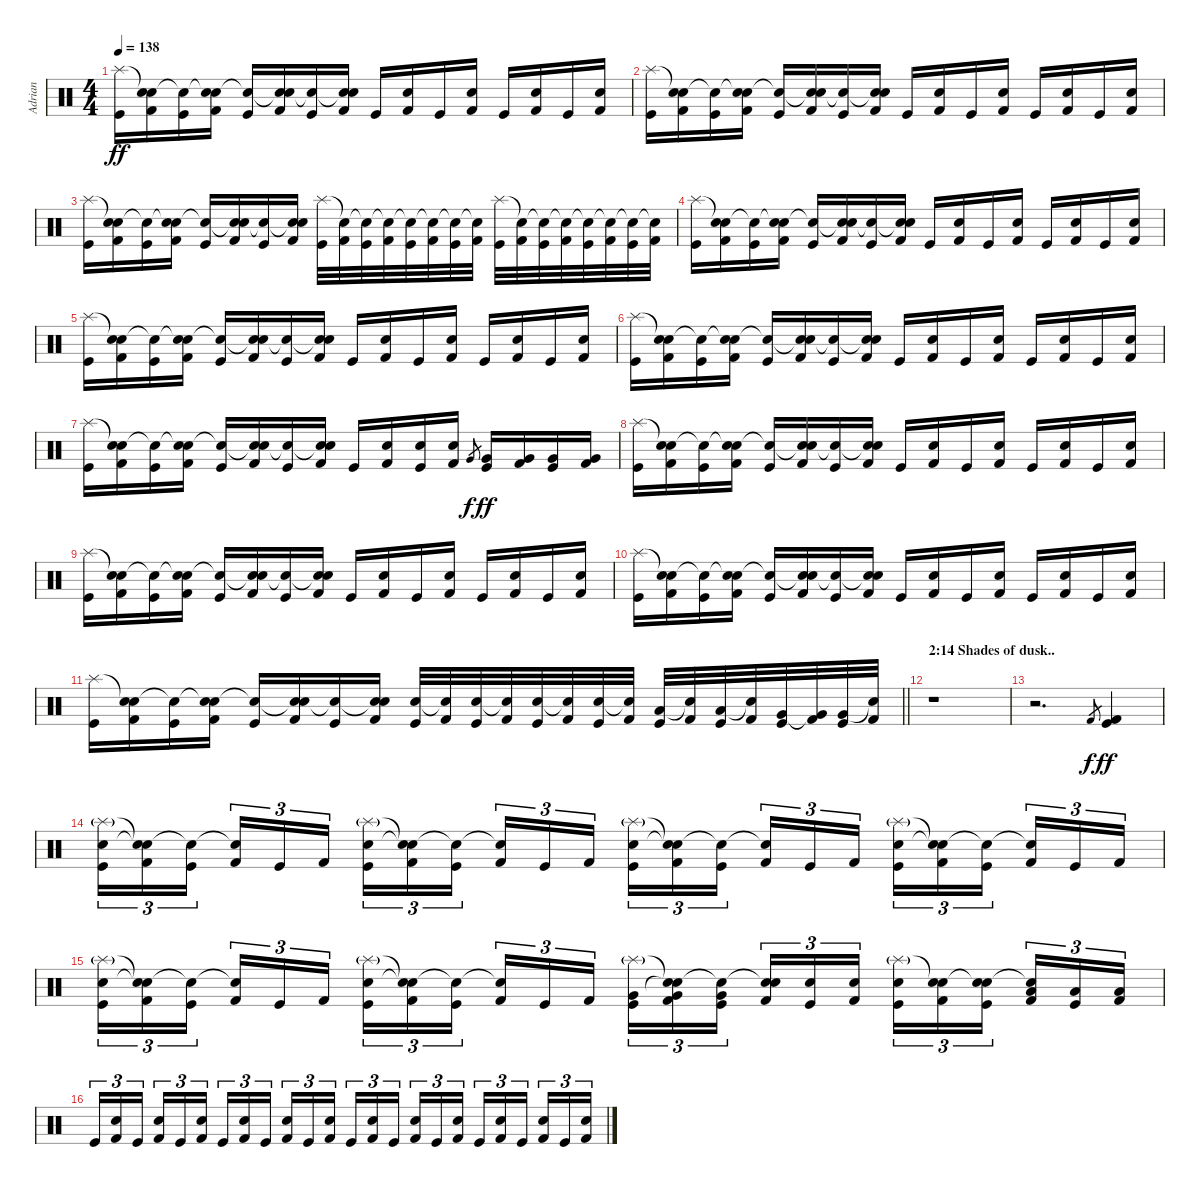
\track ("Adrian" "Adrian") {instrument percussion}
\staff {score}
\articulation defaults
\ts (4 4)
\tempo 138
\clef neutral
\ks c
("Splash (hit)" "Kick (hit)").16{dy ff} ("Snare (hit)"{t} "Electric Snare (hit)" "Kick (hit) 2").16 ("Snare (hit)"{t} "Kick (hit)").16 ("Snare (hit)"{t} "Electric Snare (hit)" "Kick (hit) 2").16 ("Snare (hit)"{t} "Kick (hit)").16 ("Snare (hit)"{t} "Electric Snare (hit)" "Kick (hit) 2").16 ("Snare (hit)"{t} "Kick (hit)").16 ("Snare (hit)"{t} "Electric Snare (hit)" "Kick (hit) 2").16 "Kick (hit)".16 ("Electric Snare (hit)" "Kick (hit) 2").16 "Kick (hit)".16 ("Electric Snare (hit)" "Kick (hit) 2").16 "Kick (hit)".16 ("Electric Snare (hit)" "Kick (hit) 2").16 "Kick (hit)".16 ("Electric Snare (hit)" "Kick (hit) 2").16 |
("Splash (hit)" "Kick (hit)").16 ("Snare (hit)"{t} "Electric Snare (hit)" "Kick (hit) 2").16 ("Snare (hit)"{t} "Kick (hit)").16 ("Snare (hit)"{t} "Electric Snare (hit)" "Kick (hit) 2").16 ("Snare (hit)"{t} "Kick (hit)").16 ("Snare (hit)"{t} "Electric Snare (hit)" "Kick (hit) 2").16 ("Snare (hit)"{t} "Kick (hit)").16 ("Snare (hit)"{t} "Electric Snare (hit)" "Kick (hit) 2").16 "Kick (hit)".16 ("Electric Snare (hit)" "Kick (hit) 2").16 "Kick (hit)".16 ("Electric Snare (hit)" "Kick (hit) 2").16 "Kick (hit)".16 ("Electric Snare (hit)" "Kick (hit) 2").16 "Kick (hit)".16 ("Electric Snare (hit)" "Kick (hit) 2").16 |
("Splash (hit)" "Kick (hit)").16 ("Snare (hit)"{t} "Electric Snare (hit)" "Kick (hit) 2").16 ("Snare (hit)"{t} "Kick (hit)").16 ("Snare (hit)"{t} "Electric Snare (hit)" "Kick (hit) 2").16 ("Snare (hit)"{t} "Kick (hit)").16 ("Snare (hit)"{t} "Electric Snare (hit)" "Kick (hit) 2").16 ("Snare (hit)"{t} "Kick (hit)").16 ("Snare (hit)"{t} "Electric Snare (hit)" "Kick (hit) 2").16 ("Splash (hit)" "Kick (hit)").32 ("Snare (hit)"{t} "Kick (hit) 2").32 ("Snare (hit)"{t} "Kick (hit)").32 ("Snare (hit)"{t} "Kick (hit) 2").32 ("Snare (hit)"{t} "Kick (hit)").32 ("Snare (hit)"{t} "Kick (hit) 2").32 ("Snare (hit)"{t} "Kick (hit)").32 ("Snare (hit)"{t} "Kick (hit) 2").32 ("Splash (hit)" "Kick (hit)").32 ("Snare (hit)"{t} "Kick (hit) 2").32 ("Snare (hit)"{t} "Kick (hit)").32 ("Snare (hit)"{t} "Kick (hit) 2").32 ("Snare (hit)"{t} "Kick (hit)").32 ("Snare (hit)"{t} "Kick (hit) 2").32 ("Snare (hit)"{t} "Kick (hit)").32 ("Snare (hit)"{t} "Kick (hit) 2").32 |
("Splash (hit)" "Kick (hit)").16 ("Snare (hit)"{t} "Electric Snare (hit)" "Kick (hit) 2").16 ("Snare (hit)"{t} "Kick (hit)").16 ("Snare (hit)"{t} "Electric Snare (hit)" "Kick (hit) 2").16 ("Snare (hit)"{t} "Kick (hit)").16 ("Snare (hit)"{t} "Electric Snare (hit)" "Kick (hit) 2").16 ("Snare (hit)"{t} "Kick (hit)").16 ("Snare (hit)"{t} "Electric Snare (hit)" "Kick (hit) 2").16 "Kick (hit)".16 ("Electric Snare (hit)" "Kick (hit) 2").16 "Kick (hit)".16 ("Electric Snare (hit)" "Kick (hit) 2").16 "Kick (hit)".16 ("Electric Snare (hit)" "Kick (hit) 2").16 "Kick (hit)".16 ("Electric Snare (hit)" "Kick (hit) 2").16 |
("Splash (hit)" "Kick (hit)").16 ("Snare (hit)"{t} "Electric Snare (hit)" "Kick (hit) 2").16 ("Snare (hit)"{t} "Kick (hit)").16 ("Snare (hit)"{t} "Electric Snare (hit)" "Kick (hit) 2").16 ("Snare (hit)"{t} "Kick (hit)").16 ("Snare (hit)"{t} "Electric Snare (hit)" "Kick (hit) 2").16 ("Snare (hit)"{t} "Kick (hit)").16 ("Snare (hit)"{t} "Electric Snare (hit)" "Kick (hit) 2").16 "Kick (hit)".16 ("Electric Snare (hit)" "Kick (hit) 2").16 "Kick (hit)".16 ("Electric Snare (hit)" "Kick (hit) 2").16 "Kick (hit)".16 ("Electric Snare (hit)" "Kick (hit) 2").16 "Kick (hit)".16 ("Electric Snare (hit)" "Kick (hit) 2").16 |
("Splash (hit)" "Kick (hit)").16 ("Snare (hit)"{t} "Electric Snare (hit)" "Kick (hit) 2").16 ("Snare (hit)"{t} "Kick (hit)").16 ("Snare (hit)"{t} "Electric Snare (hit)" "Kick (hit) 2").16 ("Snare (hit)"{t} "Kick (hit)").16 ("Snare (hit)"{t} "Electric Snare (hit)" "Kick (hit) 2").16 ("Snare (hit)"{t} "Kick (hit)").16 ("Snare (hit)"{t} "Electric Snare (hit)" "Kick (hit) 2").16 "Kick (hit)".16 ("Electric Snare (hit)" "Kick (hit) 2").16 "Kick (hit)".16 ("Electric Snare (hit)" "Kick (hit) 2").16 "Kick (hit)".16 ("Electric Snare (hit)" "Kick (hit) 2").16 "Kick (hit)".16 ("Electric Snare (hit)" "Kick (hit) 2").16 |
("Splash (hit)" "Kick (hit)").16 ("Snare (hit)"{t} "Electric Snare (hit)" "Kick (hit) 2").16 ("Snare (hit)"{t} "Kick (hit)").16 ("Snare (hit)"{t} "Electric Snare (hit)" "Kick (hit) 2").16 ("Snare (hit)"{t} "Kick (hit)").16 ("Snare (hit)"{t} "Electric Snare (hit)" "Kick (hit) 2").16 ("Snare (hit)"{t} "Kick (hit)").16 ("Snare (hit)"{t} "Electric Snare (hit)" "Kick (hit) 2").16 "Kick (hit)".16 ("Electric Snare (hit)" "Kick (hit) 2").16 ("Electric Snare (hit)" "Kick (hit)").16 ("Electric Snare (hit)" "Kick (hit) 2").16 "Very Low Tom (hit)".8{gr dy f} ("Very Low Tom (hit)" "Kick (hit)").16{dy ff} ("Very Low Tom (hit)" "Kick (hit) 2").16 ("Very Low Tom (hit)" "Kick (hit)").16 ("Very Low Tom (hit)" "Kick (hit) 2").16 |
("Splash (hit)" "Kick (hit)").16 ("Snare (hit)"{t} "Electric Snare (hit)" "Kick (hit) 2").16 ("Snare (hit)"{t} "Kick (hit)").16 ("Snare (hit)"{t} "Electric Snare (hit)" "Kick (hit) 2").16 ("Snare (hit)"{t} "Kick (hit)").16 ("Snare (hit)"{t} "Electric Snare (hit)" "Kick (hit) 2").16 ("Snare (hit)"{t} "Kick (hit)").16 ("Snare (hit)"{t} "Electric Snare (hit)" "Kick (hit) 2").16 "Kick (hit)".16 ("Electric Snare (hit)" "Kick (hit) 2").16 "Kick (hit)".16 ("Electric Snare (hit)" "Kick (hit) 2").16 "Kick (hit)".16 ("Electric Snare (hit)" "Kick (hit) 2").16 "Kick (hit)".16 ("Electric Snare (hit)" "Kick (hit) 2").16 |
("Splash (hit)" "Kick (hit)").16 ("Snare (hit)"{t} "Electric Snare (hit)" "Kick (hit) 2").16 ("Snare (hit)"{t} "Kick (hit)").16 ("Snare (hit)"{t} "Electric Snare (hit)" "Kick (hit) 2").16 ("Snare (hit)"{t} "Kick (hit)").16 ("Snare (hit)"{t} "Electric Snare (hit)" "Kick (hit) 2").16 ("Snare (hit)"{t} "Kick (hit)").16 ("Snare (hit)"{t} "Electric Snare (hit)" "Kick (hit) 2").16 "Kick (hit)".16 ("Electric Snare (hit)" "Kick (hit) 2").16 "Kick (hit)".16 ("Electric Snare (hit)" "Kick (hit) 2").16 "Kick (hit)".16 ("Electric Snare (hit)" "Kick (hit) 2").16 "Kick (hit)".16 ("Electric Snare (hit)" "Kick (hit) 2").16 |
("Splash (hit)" "Kick (hit)").16 ("Snare (hit)"{t} "Electric Snare (hit)" "Kick (hit) 2").16 ("Snare (hit)"{t} "Kick (hit)").16 ("Snare (hit)"{t} "Electric Snare (hit)" "Kick (hit) 2").16 ("Snare (hit)"{t} "Kick (hit)").16 ("Snare (hit)"{t} "Electric Snare (hit)" "Kick (hit) 2").16 ("Snare (hit)"{t} "Kick (hit)").16 ("Snare (hit)"{t} "Electric Snare (hit)" "Kick (hit) 2").16 "Kick (hit)".16 ("Electric Snare (hit)" "Kick (hit) 2").16 "Kick (hit)".16 ("Electric Snare (hit)" "Kick (hit) 2").16 "Kick (hit)".16 ("Electric Snare (hit)" "Kick (hit) 2").16 "Kick (hit)".16 ("Electric Snare (hit)" "Kick (hit) 2").16 |
\barLineRight lightlight
("Splash (hit)" "Kick (hit)").16 ("Snare (hit)"{t} "Electric Snare (hit)" "Kick (hit) 2").16 ("Snare (hit)"{t} "Kick (hit)").16 ("Snare (hit)"{t} "Electric Snare (hit)" "Kick (hit) 2").16 ("Snare (hit)"{t} "Kick (hit)").16 ("Snare (hit)"{t} "Electric Snare (hit)" "Kick (hit) 2").16 ("Snare (hit)"{t} "Kick (hit)").16 ("Snare (hit)"{t} "Electric Snare (hit)" "Kick (hit) 2").16 ("Electric Snare (hit)" "Kick (hit)").32 ("Electric Snare (hit)"{t} "Kick (hit) 2").32 ("Electric Snare (hit)" "Kick (hit)").32 ("Snare (hit)"{t} "Kick (hit) 2").32 ("Electric Snare (hit)" "Kick (hit)").32 ("Snare (hit)"{t} "Kick (hit) 2").32 ("Electric Snare (hit)" "Kick (hit)").32 ("Snare (hit)"{t} "Kick (hit) 2").32 ("Low Tom (hit)" "Kick (hit)").32 ("Snare (hit)"{t} "Kick (hit) 2").32 ("Low Tom (hit)" "Kick (hit)").32 ("Snare (hit)"{t} "Kick (hit) 2").32 ("Very Low Tom (hit)" "Kick (hit)").32 ("Very Low Tom (hit)"{t} "Kick (hit) 2").32 ("Very Low Tom (hit)" "Kick (hit)").32 ("Snare (hit)"{t} "Kick (hit) 2").32 |
\section ("" "2:14 Shades of dusk..")
r.1 |
r.2{d} "Kick (hit) 2".8{gr dy f} ("Kick (hit) 2" "Kick (hit)").4{dy ff} |
("Splash (hit)"{g} "Electric Snare (hit)" "Kick (hit)").16{tu (3 2)} ("Snare (hit)"{t} "Snare (hit)"{t} "Kick (hit) 2").16{tu (3 2)} ("Snare (hit)"{t} "Kick (hit)").16{tu (3 2) beam splitsecondary} ("Snare (hit)"{t} "Kick (hit) 2").16{tu (3 2)} "Kick (hit)".16{tu (3 2)} "Kick (hit) 2".16{tu (3 2)} ("Splash (hit)"{g} "Electric Snare (hit)" "Kick (hit)").16{tu (3 2)} ("Snare (hit)"{t} "Snare (hit)"{t} "Kick (hit) 2").16{tu (3 2)} ("Snare (hit)"{t} "Kick (hit)").16{tu (3 2) beam splitsecondary} ("Snare (hit)"{t} "Kick (hit) 2").16{tu (3 2)} "Kick (hit)".16{tu (3 2)} "Kick (hit) 2".16{tu (3 2)} ("Splash (hit)"{g} "Electric Snare (hit)" "Kick (hit)").16{tu (3 2)} ("Snare (hit)"{t} "Snare (hit)"{t} "Kick (hit) 2").16{tu (3 2)} ("Snare (hit)"{t} "Kick (hit)").16{tu (3 2) beam splitsecondary} ("Snare (hit)"{t} "Kick (hit) 2").16{tu (3 2)} "Kick (hit)".16{tu (3 2)} "Kick (hit) 2".16{tu (3 2)} ("Splash (hit)"{g} "Electric Snare (hit)" "Kick (hit)").16{tu (3 2)} ("Snare (hit)"{t} "Snare (hit)"{t} "Kick (hit) 2").16{tu (3 2)} ("Snare (hit)"{t} "Kick (hit)").16{tu (3 2) beam splitsecondary} ("Snare (hit)"{t} "Kick (hit) 2").16{tu (3 2)} "Kick (hit)".16{tu (3 2)} "Kick (hit) 2".16{tu (3 2)} |
("Splash (hit)"{g} "Electric Snare (hit)" "Kick (hit)").16{tu (3 2)} ("Snare (hit)"{t} "Snare (hit)"{t} "Kick (hit) 2").16{tu (3 2)} ("Snare (hit)"{t} "Kick (hit)").16{tu (3 2) beam splitsecondary} ("Snare (hit)"{t} "Kick (hit) 2").16{tu (3 2)} "Kick (hit)".16{tu (3 2)} "Kick (hit) 2".16{tu (3 2)} ("Splash (hit)"{g} "Electric Snare (hit)" "Kick (hit)").16{tu (3 2)} ("Snare (hit)"{t} "Snare (hit)"{t} "Kick (hit) 2").16{tu (3 2)} ("Snare (hit)"{t} "Kick (hit)").16{tu (3 2) beam splitsecondary} ("Snare (hit)"{t} "Kick (hit) 2").16{tu (3 2)} "Kick (hit)".16{tu (3 2)} "Kick (hit) 2".16{tu (3 2)} ("Splash (hit)"{g} "Very Low Tom (hit)" "Kick (hit)").16{tu (3 2)} ("Snare (hit)"{t} "Snare (hit)"{t} "Very Low Tom (hit)" "Kick (hit) 2").16{tu (3 2)} ("Snare (hit)"{t} "Very Low Tom (hit)" "Kick (hit)").16{tu (3 2) beam splitsecondary} ("Snare (hit)"{t} "Electric Snare (hit)" "Kick (hit) 2").16{tu (3 2)} ("Electric Snare (hit)" "Kick (hit)").16{tu (3 2)} ("Electric Snare (hit)" "Kick (hit) 2").16{tu (3 2)} ("Splash (hit)"{g} "Electric Snare (hit)" "Kick (hit)").16{tu (3 2)} ("Snare (hit)"{t} "Electric Snare (hit)" "Kick (hit) 2").16{tu (3 2)} ("Snare (hit)"{t} "Electric Snare (hit)" "Kick (hit)").16{tu (3 2) beam splitsecondary} ("Snare (hit)"{t} "Low Floor Tom (hit)" "Kick (hit) 2").16{tu (3 2)} ("Low Floor Tom (hit)" "Kick (hit)").16{tu (3 2)} ("Low Floor Tom (hit)" "Kick (hit) 2").16{tu (3 2)} |
"Kick (hit)".16{tu (3 2)} ("Electric Snare (hit)" "Kick (hit) 2").16{tu (3 2)} "Kick (hit)".16{tu (3 2) beam splitsecondary} ("Electric Snare (hit)" "Kick (hit) 2").16{tu (3 2)} "Kick (hit)".16{tu (3 2)} ("Electric Snare (hit)" "Kick (hit) 2").16{tu (3 2)} "Kick (hit)".16{tu (3 2)} ("Electric Snare (hit)" "Kick (hit) 2").16{tu (3 2)} "Kick (hit)".16{tu (3 2) beam splitsecondary} ("Electric Snare (hit)" "Kick (hit) 2").16{tu (3 2)} "Kick (hit)".16{tu (3 2)} ("Electric Snare (hit)" "Kick (hit) 2").16{tu (3 2)} "Kick (hit)".16{tu (3 2)} ("Electric Snare (hit)" "Kick (hit) 2").16{tu (3 2)} "Kick (hit)".16{tu (3 2) beam splitsecondary} ("Electric Snare (hit)" "Kick (hit) 2").16{tu (3 2)} "Kick (hit)".16{tu (3 2)} ("Electric Snare (hit)" "Kick (hit) 2").16{tu (3 2)} "Kick (hit)".16{tu (3 2)} ("Electric Snare (hit)" "Kick (hit) 2").16{tu (3 2)} "Kick (hit)".16{tu (3 2) beam splitsecondary} ("Electric Snare (hit)" "Kick (hit) 2").16{tu (3 2)} "Kick (hit)".16{tu (3 2)} ("Electric Snare (hit)" "Kick (hit) 2").16{tu (3 2)}
